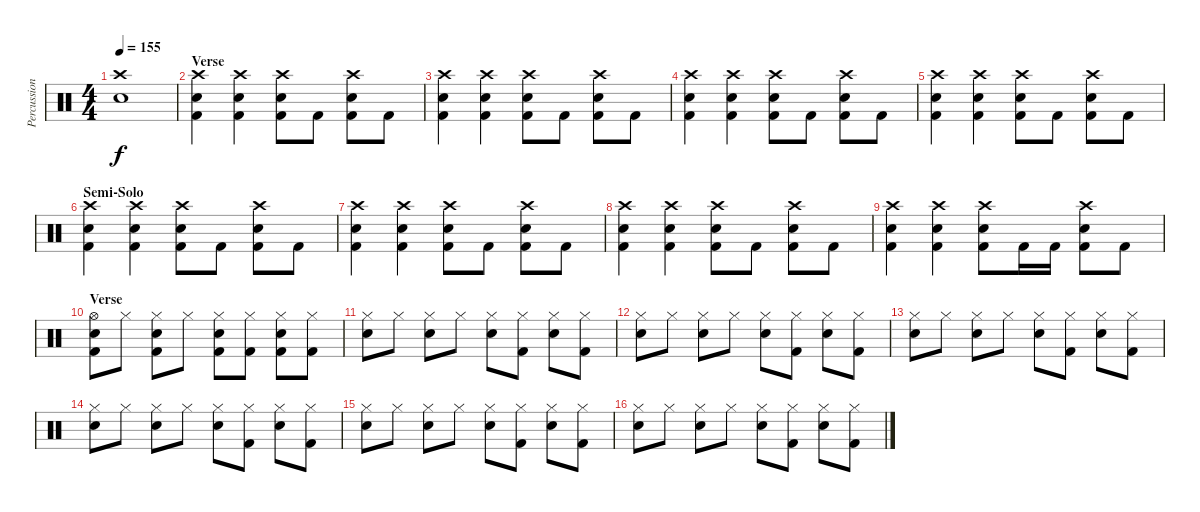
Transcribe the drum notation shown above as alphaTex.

\track ("Percussion" "Percussion") {instrument percussion}
\staff {score}
\articulation defaults
\ts (4 4)
\tempo 155
\clef neutral
\ks c
("Crash high (hit)" "Snare (hit) 2").1{dy f} |
\section ("" "Verse")
("Crash high (hit)" "Snare (hit) 2" "Kick (hit) 2").4 ("Crash high (hit)" "Snare (hit) 2" "Kick (hit) 2").4 ("Crash high (hit)" "Snare (hit) 2" "Kick (hit) 2").8 "Kick (hit) 2".8 ("Crash high (hit)" "Snare (hit) 2" "Kick (hit) 2").8 "Kick (hit) 2".8 |
("Crash high (hit)" "Snare (hit) 2" "Kick (hit) 2").4 ("Crash high (hit)" "Snare (hit) 2" "Kick (hit) 2").4 ("Crash high (hit)" "Snare (hit) 2" "Kick (hit) 2").8 "Kick (hit) 2".8 ("Crash high (hit)" "Snare (hit) 2" "Kick (hit) 2").8 "Kick (hit) 2".8 |
("Crash high (hit)" "Snare (hit) 2" "Kick (hit) 2").4 ("Crash high (hit)" "Snare (hit) 2" "Kick (hit) 2").4 ("Crash high (hit)" "Snare (hit) 2" "Kick (hit) 2").8 "Kick (hit) 2".8 ("Crash high (hit)" "Snare (hit) 2" "Kick (hit) 2").8 "Kick (hit) 2".8 |
("Crash high (hit)" "Snare (hit) 2" "Kick (hit) 2").4 ("Crash high (hit)" "Snare (hit) 2" "Kick (hit) 2").4 ("Crash high (hit)" "Snare (hit) 2" "Kick (hit) 2").8 "Kick (hit) 2".8 ("Crash high (hit)" "Snare (hit) 2" "Kick (hit) 2").8 "Kick (hit) 2".8 |
\section ("" "Semi-Solo")
("Crash high (hit)" "Snare (hit) 2" "Kick (hit) 2").4 ("Crash high (hit)" "Snare (hit) 2" "Kick (hit) 2").4 ("Crash high (hit)" "Snare (hit) 2" "Kick (hit) 2").8 "Kick (hit) 2".8 ("Crash high (hit)" "Snare (hit) 2" "Kick (hit) 2").8 "Kick (hit) 2".8 |
("Crash high (hit)" "Snare (hit) 2" "Kick (hit) 2").4 ("Crash high (hit)" "Snare (hit) 2" "Kick (hit) 2").4 ("Crash high (hit)" "Snare (hit) 2" "Kick (hit) 2").8 "Kick (hit) 2".8 ("Crash high (hit)" "Snare (hit) 2" "Kick (hit) 2").8 "Kick (hit) 2".8 |
("Crash high (hit)" "Snare (hit) 2" "Kick (hit) 2").4 ("Crash high (hit)" "Snare (hit) 2" "Kick (hit) 2").4 ("Crash high (hit)" "Snare (hit) 2" "Kick (hit) 2").8 "Kick (hit) 2".8 ("Crash high (hit)" "Snare (hit) 2" "Kick (hit) 2").8 "Kick (hit) 2".8 |
("Crash high (hit)" "Snare (hit) 2" "Kick (hit) 2").4 ("Crash high (hit)" "Snare (hit) 2" "Kick (hit) 2").4 ("Crash high (hit)" "Snare (hit) 2" "Kick (hit) 2").8 "Kick (hit) 2".16 "Kick (hit) 2".16 ("Crash high (hit)" "Snare (hit) 2" "Kick (hit) 2").8 "Kick (hit) 2".8 |
\section ("" "Verse")
("Hi-Hat (open)" "Snare (hit) 2" "Kick (hit) 2").8 "Hi-Hat (closed)".8 ("Hi-Hat (closed)" "Snare (hit) 2" "Kick (hit) 2").8 "Hi-Hat (closed)".8 ("Hi-Hat (closed)" "Snare (hit) 2" "Kick (hit) 2").8 ("Hi-Hat (closed)" "Kick (hit) 2").8 ("Hi-Hat (closed)" "Snare (hit) 2" "Kick (hit) 2").8 ("Hi-Hat (closed)" "Kick (hit) 2").8 |
("Hi-Hat (closed)" "Snare (hit) 2").8 "Hi-Hat (closed)".8 ("Hi-Hat (closed)" "Snare (hit) 2").8 "Hi-Hat (closed)".8 ("Hi-Hat (closed)" "Snare (hit) 2").8 ("Hi-Hat (closed)" "Kick (hit) 2").8 ("Hi-Hat (closed)" "Snare (hit) 2").8 ("Hi-Hat (closed)" "Kick (hit) 2").8 |
("Hi-Hat (closed)" "Snare (hit) 2").8 "Hi-Hat (closed)".8 ("Hi-Hat (closed)" "Snare (hit) 2").8 "Hi-Hat (closed)".8 ("Hi-Hat (closed)" "Snare (hit) 2").8 ("Hi-Hat (closed)" "Kick (hit) 2").8 ("Hi-Hat (closed)" "Snare (hit) 2").8 ("Hi-Hat (closed)" "Kick (hit) 2").8 |
("Hi-Hat (closed)" "Snare (hit) 2").8 "Hi-Hat (closed)".8 ("Hi-Hat (closed)" "Snare (hit) 2").8 "Hi-Hat (closed)".8 ("Hi-Hat (closed)" "Snare (hit) 2").8 ("Hi-Hat (closed)" "Kick (hit) 2").8 ("Hi-Hat (closed)" "Snare (hit) 2").8 ("Hi-Hat (closed)" "Kick (hit) 2").8 |
("Hi-Hat (closed)" "Snare (hit) 2").8 "Hi-Hat (closed)".8 ("Hi-Hat (closed)" "Snare (hit) 2").8 "Hi-Hat (closed)".8 ("Hi-Hat (closed)" "Snare (hit) 2").8 ("Hi-Hat (closed)" "Kick (hit) 2").8 ("Hi-Hat (closed)" "Snare (hit) 2").8 ("Hi-Hat (closed)" "Kick (hit) 2").8 |
("Hi-Hat (closed)" "Snare (hit) 2").8 "Hi-Hat (closed)".8 ("Hi-Hat (closed)" "Snare (hit) 2").8 "Hi-Hat (closed)".8 ("Hi-Hat (closed)" "Snare (hit) 2").8 ("Hi-Hat (closed)" "Kick (hit) 2").8 ("Hi-Hat (closed)" "Snare (hit) 2").8 ("Hi-Hat (closed)" "Kick (hit) 2").8 |
("Hi-Hat (closed)" "Snare (hit) 2").8 "Hi-Hat (closed)".8 ("Hi-Hat (closed)" "Snare (hit) 2").8 "Hi-Hat (closed)".8 ("Hi-Hat (closed)" "Snare (hit) 2").8 ("Hi-Hat (closed)" "Kick (hit) 2").8 ("Hi-Hat (closed)" "Snare (hit) 2").8 ("Hi-Hat (closed)" "Kick (hit) 2").8
